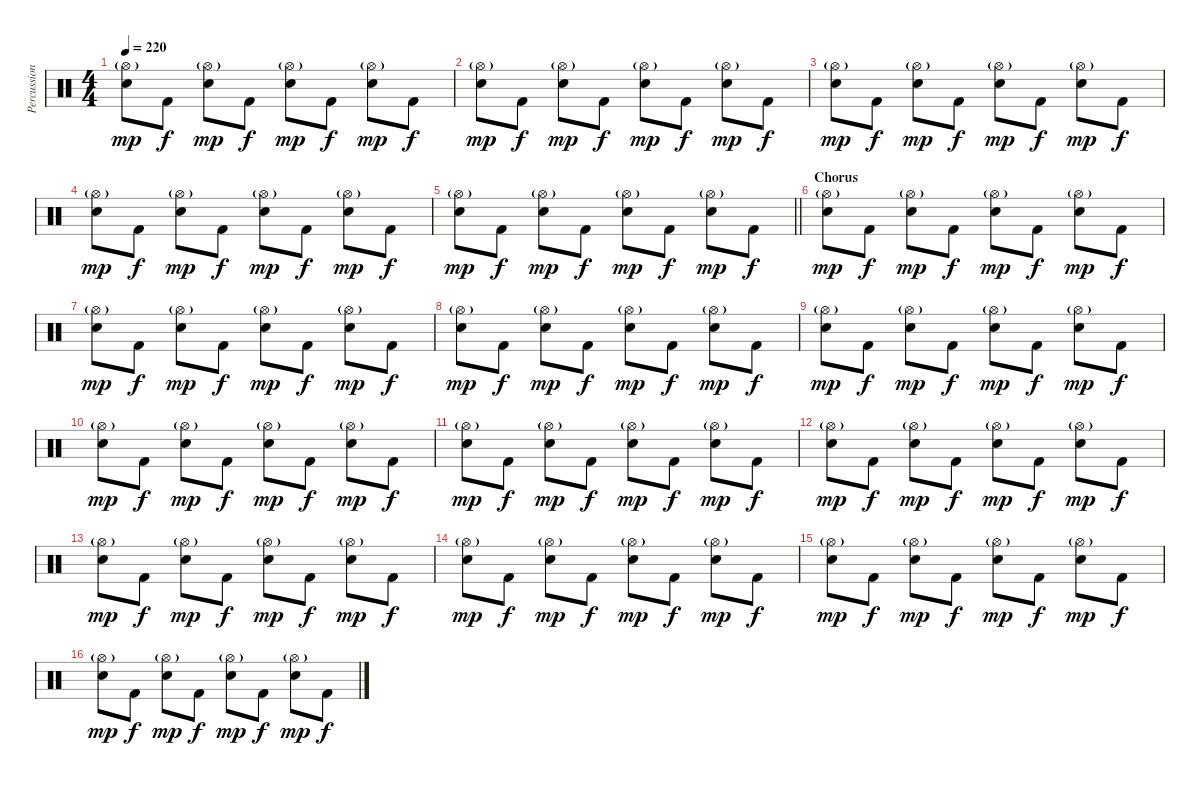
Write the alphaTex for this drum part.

\track ("Percussions" "Percussion") {instrument percussion}
\staff {score}
\articulation defaults
\ts (4 4)
\tempo 220
\clef neutral
\ks c
("Hi-Hat (open)"{g} "Electric Snare (hit)").8{dy mp} "Kick (hit) 2".8{dy f} ("Hi-Hat (open)"{g} "Electric Snare (hit)").8{dy mp} "Kick (hit) 2".8{dy f} ("Hi-Hat (open)"{g} "Electric Snare (hit)").8{dy mp} "Kick (hit) 2".8{dy f} ("Hi-Hat (open)"{g} "Electric Snare (hit)").8{dy mp} "Kick (hit) 2".8{dy f} |
("Hi-Hat (open)"{g} "Electric Snare (hit)").8{dy mp} "Kick (hit) 2".8{dy f} ("Hi-Hat (open)"{g} "Electric Snare (hit)").8{dy mp} "Kick (hit) 2".8{dy f} ("Hi-Hat (open)"{g} "Electric Snare (hit)").8{dy mp} "Kick (hit) 2".8{dy f} ("Hi-Hat (open)"{g} "Electric Snare (hit)").8{dy mp} "Kick (hit) 2".8{dy f} |
("Hi-Hat (open)"{g} "Electric Snare (hit)").8{dy mp} "Kick (hit) 2".8{dy f} ("Hi-Hat (open)"{g} "Electric Snare (hit)").8{dy mp} "Kick (hit) 2".8{dy f} ("Hi-Hat (open)"{g} "Electric Snare (hit)").8{dy mp} "Kick (hit) 2".8{dy f} ("Hi-Hat (open)"{g} "Electric Snare (hit)").8{dy mp} "Kick (hit) 2".8{dy f} |
("Hi-Hat (open)"{g} "Electric Snare (hit)").8{dy mp} "Kick (hit) 2".8{dy f} ("Hi-Hat (open)"{g} "Electric Snare (hit)").8{dy mp} "Kick (hit) 2".8{dy f} ("Hi-Hat (open)"{g} "Electric Snare (hit)").8{dy mp} "Kick (hit) 2".8{dy f} ("Hi-Hat (open)"{g} "Electric Snare (hit)").8{dy mp} "Kick (hit) 2".8{dy f} |
\barLineRight lightlight
("Hi-Hat (open)"{g} "Electric Snare (hit)").8{dy mp} "Kick (hit) 2".8{dy f} ("Hi-Hat (open)"{g} "Electric Snare (hit)").8{dy mp} "Kick (hit) 2".8{dy f} ("Hi-Hat (open)"{g} "Electric Snare (hit)").8{dy mp} "Kick (hit) 2".8{dy f} ("Hi-Hat (open)"{g} "Electric Snare (hit)").8{dy mp} "Kick (hit) 2".8{dy f} |
\section ("" "Chorus")
("Hi-Hat (open)"{g} "Electric Snare (hit)").8{dy mp} "Kick (hit) 2".8{dy f} ("Hi-Hat (open)"{g} "Electric Snare (hit)").8{dy mp} "Kick (hit) 2".8{dy f} ("Hi-Hat (open)"{g} "Electric Snare (hit)").8{dy mp} "Kick (hit) 2".8{dy f} ("Hi-Hat (open)"{g} "Electric Snare (hit)").8{dy mp} "Kick (hit) 2".8{dy f} |
("Hi-Hat (open)"{g} "Electric Snare (hit)").8{dy mp} "Kick (hit) 2".8{dy f} ("Hi-Hat (open)"{g} "Electric Snare (hit)").8{dy mp} "Kick (hit) 2".8{dy f} ("Hi-Hat (open)"{g} "Electric Snare (hit)").8{dy mp} "Kick (hit) 2".8{dy f} ("Hi-Hat (open)"{g} "Electric Snare (hit)").8{dy mp} "Kick (hit) 2".8{dy f} |
("Hi-Hat (open)"{g} "Electric Snare (hit)").8{dy mp} "Kick (hit) 2".8{dy f} ("Hi-Hat (open)"{g} "Electric Snare (hit)").8{dy mp} "Kick (hit) 2".8{dy f} ("Hi-Hat (open)"{g} "Electric Snare (hit)").8{dy mp} "Kick (hit) 2".8{dy f} ("Hi-Hat (open)"{g} "Electric Snare (hit)").8{dy mp} "Kick (hit) 2".8{dy f} |
("Hi-Hat (open)"{g} "Electric Snare (hit)").8{dy mp} "Kick (hit) 2".8{dy f} ("Hi-Hat (open)"{g} "Electric Snare (hit)").8{dy mp} "Kick (hit) 2".8{dy f} ("Hi-Hat (open)"{g} "Electric Snare (hit)").8{dy mp} "Kick (hit) 2".8{dy f} ("Hi-Hat (open)"{g} "Electric Snare (hit)").8{dy mp} "Kick (hit) 2".8{dy f} |
("Hi-Hat (open)"{g} "Electric Snare (hit)").8{dy mp} "Kick (hit) 2".8{dy f} ("Hi-Hat (open)"{g} "Electric Snare (hit)").8{dy mp} "Kick (hit) 2".8{dy f} ("Hi-Hat (open)"{g} "Electric Snare (hit)").8{dy mp} "Kick (hit) 2".8{dy f} ("Hi-Hat (open)"{g} "Electric Snare (hit)").8{dy mp} "Kick (hit) 2".8{dy f} |
("Hi-Hat (open)"{g} "Electric Snare (hit)").8{dy mp} "Kick (hit) 2".8{dy f} ("Hi-Hat (open)"{g} "Electric Snare (hit)").8{dy mp} "Kick (hit) 2".8{dy f} ("Hi-Hat (open)"{g} "Electric Snare (hit)").8{dy mp} "Kick (hit) 2".8{dy f} ("Hi-Hat (open)"{g} "Electric Snare (hit)").8{dy mp} "Kick (hit) 2".8{dy f} |
("Hi-Hat (open)"{g} "Electric Snare (hit)").8{dy mp} "Kick (hit) 2".8{dy f} ("Hi-Hat (open)"{g} "Electric Snare (hit)").8{dy mp} "Kick (hit) 2".8{dy f} ("Hi-Hat (open)"{g} "Electric Snare (hit)").8{dy mp} "Kick (hit) 2".8{dy f} ("Hi-Hat (open)"{g} "Electric Snare (hit)").8{dy mp} "Kick (hit) 2".8{dy f} |
("Hi-Hat (open)"{g} "Electric Snare (hit)").8{dy mp} "Kick (hit) 2".8{dy f} ("Hi-Hat (open)"{g} "Electric Snare (hit)").8{dy mp} "Kick (hit) 2".8{dy f} ("Hi-Hat (open)"{g} "Electric Snare (hit)").8{dy mp} "Kick (hit) 2".8{dy f} ("Hi-Hat (open)"{g} "Electric Snare (hit)").8{dy mp} "Kick (hit) 2".8{dy f} |
("Hi-Hat (open)"{g} "Electric Snare (hit)").8{dy mp} "Kick (hit) 2".8{dy f} ("Hi-Hat (open)"{g} "Electric Snare (hit)").8{dy mp} "Kick (hit) 2".8{dy f} ("Hi-Hat (open)"{g} "Electric Snare (hit)").8{dy mp} "Kick (hit) 2".8{dy f} ("Hi-Hat (open)"{g} "Electric Snare (hit)").8{dy mp} "Kick (hit) 2".8{dy f} |
("Hi-Hat (open)"{g} "Electric Snare (hit)").8{dy mp} "Kick (hit) 2".8{dy f} ("Hi-Hat (open)"{g} "Electric Snare (hit)").8{dy mp} "Kick (hit) 2".8{dy f} ("Hi-Hat (open)"{g} "Electric Snare (hit)").8{dy mp} "Kick (hit) 2".8{dy f} ("Hi-Hat (open)"{g} "Electric Snare (hit)").8{dy mp} "Kick (hit) 2".8{dy f} |
("Hi-Hat (open)"{g} "Electric Snare (hit)").8{dy mp} "Kick (hit) 2".8{dy f} ("Hi-Hat (open)"{g} "Electric Snare (hit)").8{dy mp} "Kick (hit) 2".8{dy f} ("Hi-Hat (open)"{g} "Electric Snare (hit)").8{dy mp} "Kick (hit) 2".8{dy f} ("Hi-Hat (open)"{g} "Electric Snare (hit)").8{dy mp} "Kick (hit) 2".8{dy f}
